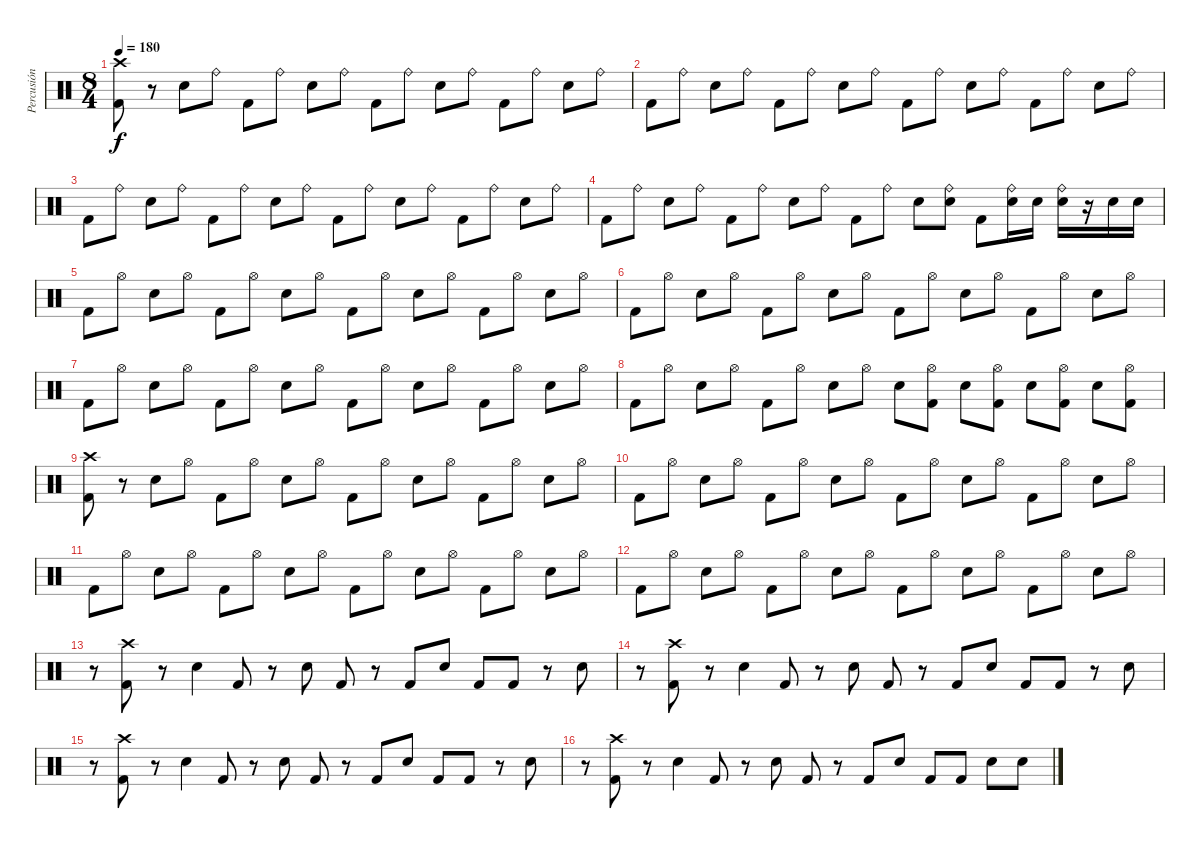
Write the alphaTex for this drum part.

\track ("Percusión" "Percusión") {instrument percussion}
\staff {score}
\articulation defaults
\ts (8 4)
\tempo 180
\clef neutral
\ks c
("Crash high (hit)" "Kick (hit) 2").8{dy f} r.8 "Snare (hit) 2".8 "Ride (bell)".8 "Kick (hit) 2".8 "Ride (bell)".8 "Snare (hit) 2".8 "Ride (bell)".8 "Kick (hit) 2".8 "Ride (bell)".8 "Snare (hit) 2".8 "Ride (bell)".8 "Kick (hit) 2".8 "Ride (bell)".8 "Snare (hit) 2".8 "Ride (bell)".8 |
"Kick (hit) 2".8 "Ride (bell)".8 "Snare (hit) 2".8 "Ride (bell)".8 "Kick (hit) 2".8 "Ride (bell)".8 "Snare (hit) 2".8 "Ride (bell)".8 "Kick (hit) 2".8 "Ride (bell)".8 "Snare (hit) 2".8 "Ride (bell)".8 "Kick (hit) 2".8 "Ride (bell)".8 "Snare (hit) 2".8 "Ride (bell)".8 |
"Kick (hit) 2".8 "Ride (bell)".8 "Snare (hit) 2".8 "Ride (bell)".8 "Kick (hit) 2".8 "Ride (bell)".8 "Snare (hit) 2".8 "Ride (bell)".8 "Kick (hit) 2".8 "Ride (bell)".8 "Snare (hit) 2".8 "Ride (bell)".8 "Kick (hit) 2".8 "Ride (bell)".8 "Snare (hit) 2".8 "Ride (bell)".8 |
"Kick (hit) 2".8 "Ride (bell)".8 "Snare (hit) 2".8 "Ride (bell)".8 "Kick (hit) 2".8 "Ride (bell)".8 "Snare (hit) 2".8 "Ride (bell)".8 "Kick (hit) 2".8 "Ride (bell)".8 "Snare (hit) 2".8 ("Ride (bell)" "Snare (hit) 2").8 "Kick (hit) 2".8 ("Ride (bell)" "Snare (hit) 2").16 "Snare (hit) 2".16 ("Ride (bell)" "Snare (hit) 2").16 r.16 "Snare (hit) 2".16 "Snare (hit) 2".16 |
"Kick (hit) 2".8 "Hi-Hat (open)".8 "Snare (hit) 2".8 "Hi-Hat (open)".8 "Kick (hit) 2".8 "Hi-Hat (open)".8 "Snare (hit) 2".8 "Hi-Hat (open)".8 "Kick (hit) 2".8 "Hi-Hat (open)".8 "Snare (hit) 2".8 "Hi-Hat (open)".8 "Kick (hit) 2".8 "Hi-Hat (open)".8 "Snare (hit) 2".8 "Hi-Hat (open)".8 |
"Kick (hit) 2".8 "Hi-Hat (open)".8 "Snare (hit) 2".8 "Hi-Hat (open)".8 "Kick (hit) 2".8 "Hi-Hat (open)".8 "Snare (hit) 2".8 "Hi-Hat (open)".8 "Kick (hit) 2".8 "Hi-Hat (open)".8 "Snare (hit) 2".8 "Hi-Hat (open)".8 "Kick (hit) 2".8 "Hi-Hat (open)".8 "Snare (hit) 2".8 "Hi-Hat (open)".8 |
"Kick (hit) 2".8 "Hi-Hat (open)".8 "Snare (hit) 2".8 "Hi-Hat (open)".8 "Kick (hit) 2".8 "Hi-Hat (open)".8 "Snare (hit) 2".8 "Hi-Hat (open)".8 "Kick (hit) 2".8 "Hi-Hat (open)".8 "Snare (hit) 2".8 "Hi-Hat (open)".8 "Kick (hit) 2".8 "Hi-Hat (open)".8 "Snare (hit) 2".8 "Hi-Hat (open)".8 |
"Kick (hit) 2".8 "Hi-Hat (open)".8 "Snare (hit) 2".8 "Hi-Hat (open)".8 "Kick (hit) 2".8 "Hi-Hat (open)".8 "Snare (hit) 2".8 "Hi-Hat (open)".8 "Snare (hit) 2".8 ("Hi-Hat (open)" "Kick (hit) 2").8 "Snare (hit) 2".8 ("Hi-Hat (open)" "Kick (hit) 2").8 "Snare (hit) 2".8 ("Hi-Hat (open)" "Kick (hit) 2").8 "Snare (hit) 2".8 ("Hi-Hat (open)" "Kick (hit) 2").8 |
("Crash high (hit)" "Kick (hit) 2").8 r.8 "Snare (hit) 2".8 "Hi-Hat (open)".8 "Kick (hit) 2".8 "Hi-Hat (open)".8 "Snare (hit) 2".8 "Hi-Hat (open)".8 "Kick (hit) 2".8 "Hi-Hat (open)".8 "Snare (hit) 2".8 "Hi-Hat (open)".8 "Kick (hit) 2".8 "Hi-Hat (open)".8 "Snare (hit) 2".8 "Hi-Hat (open)".8 |
"Kick (hit) 2".8 "Hi-Hat (open)".8 "Snare (hit) 2".8 "Hi-Hat (open)".8 "Kick (hit) 2".8 "Hi-Hat (open)".8 "Snare (hit) 2".8 "Hi-Hat (open)".8 "Kick (hit) 2".8 "Hi-Hat (open)".8 "Snare (hit) 2".8 "Hi-Hat (open)".8 "Kick (hit) 2".8 "Hi-Hat (open)".8 "Snare (hit) 2".8 "Hi-Hat (open)".8 |
"Kick (hit) 2".8 "Hi-Hat (open)".8 "Snare (hit) 2".8 "Hi-Hat (open)".8 "Kick (hit) 2".8 "Hi-Hat (open)".8 "Snare (hit) 2".8 "Hi-Hat (open)".8 "Kick (hit) 2".8 "Hi-Hat (open)".8 "Snare (hit) 2".8 "Hi-Hat (open)".8 "Kick (hit) 2".8 "Hi-Hat (open)".8 "Snare (hit) 2".8 "Hi-Hat (open)".8 |
"Kick (hit) 2".8 "Hi-Hat (open)".8 "Snare (hit) 2".8 "Hi-Hat (open)".8 "Kick (hit) 2".8 "Hi-Hat (open)".8 "Snare (hit) 2".8 "Hi-Hat (open)".8 "Kick (hit) 2".8 "Hi-Hat (open)".8 "Snare (hit) 2".8 "Hi-Hat (open)".8 "Kick (hit) 2".8 "Hi-Hat (open)".8 "Snare (hit) 2".8 "Hi-Hat (open)".8 |
r.8 ("Kick (hit) 2" "Crash high (hit)").8 r.8 "Snare (hit) 2".4 "Kick (hit) 2".8 r.8 "Snare (hit) 2".8 "Kick (hit) 2".8 r.8 "Kick (hit) 2".8 "Snare (hit) 2".8 "Kick (hit) 2".8 "Kick (hit) 2".8 r.8 "Snare (hit) 2".8 |
r.8 ("Kick (hit) 2" "Crash high (hit)").8 r.8 "Snare (hit) 2".4 "Kick (hit) 2".8 r.8 "Snare (hit) 2".8 "Kick (hit) 2".8 r.8 "Kick (hit) 2".8 "Snare (hit) 2".8 "Kick (hit) 2".8 "Kick (hit) 2".8 r.8 "Snare (hit) 2".8 |
r.8 ("Kick (hit) 2" "Crash high (hit)").8 r.8 "Snare (hit) 2".4 "Kick (hit) 2".8 r.8 "Snare (hit) 2".8 "Kick (hit) 2".8 r.8 "Kick (hit) 2".8 "Snare (hit) 2".8 "Kick (hit) 2".8 "Kick (hit) 2".8 r.8 "Snare (hit) 2".8 |
r.8 ("Kick (hit) 2" "Crash high (hit)").8 r.8 "Snare (hit) 2".4 "Kick (hit) 2".8 r.8 "Snare (hit) 2".8 "Kick (hit) 2".8 r.8 "Kick (hit) 2".8 "Snare (hit) 2".8 "Kick (hit) 2".8 "Kick (hit) 2".8 "Snare (hit) 2".8 "Snare (hit) 2".8
